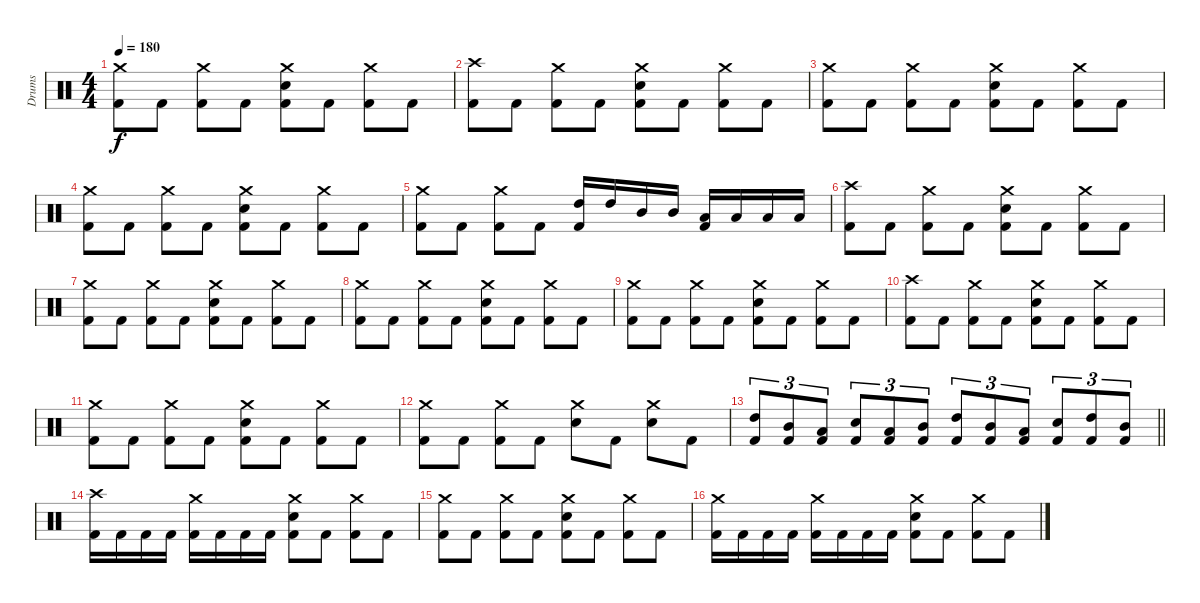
\track ("Drums" "Drums") {instrument percussion}
\staff {score}
\articulation defaults
\ts (4 4)
\tempo 180
\clef neutral
\ks c
("Crash medium (hit)" "Kick (hit) 2").8{dy f} "Kick (hit) 2".8 ("Crash medium (hit)" "Kick (hit) 2").8 "Kick (hit) 2".8 ("Crash medium (hit)" "Snare (hit) 2" "Kick (hit) 2").8 "Kick (hit) 2".8 ("Crash medium (hit)" "Kick (hit) 2").8 "Kick (hit) 2".8 |
("Crash high (hit)" "Kick (hit) 2").8 "Kick (hit) 2".8 ("Crash medium (hit)" "Kick (hit) 2").8 "Kick (hit) 2".8 ("Crash medium (hit)" "Snare (hit) 2" "Kick (hit) 2").8 "Kick (hit) 2".8 ("Crash medium (hit)" "Kick (hit) 2").8 "Kick (hit) 2".8 |
("Crash medium (hit)" "Kick (hit) 2").8 "Kick (hit) 2".8 ("Crash medium (hit)" "Kick (hit) 2").8 "Kick (hit) 2".8 ("Crash medium (hit)" "Snare (hit) 2" "Kick (hit) 2").8 "Kick (hit) 2".8 ("Crash medium (hit)" "Kick (hit) 2").8 "Kick (hit) 2".8 |
("Crash medium (hit)" "Kick (hit) 2").8 "Kick (hit) 2".8 ("Crash medium (hit)" "Kick (hit) 2").8 "Kick (hit) 2".8 ("Crash medium (hit)" "Snare (hit) 2" "Kick (hit) 2").8 "Kick (hit) 2".8 ("Crash medium (hit)" "Kick (hit) 2").8 "Kick (hit) 2".8 |
("Crash medium (hit)" "Kick (hit) 2").8 "Kick (hit) 2".8 ("Crash medium (hit)" "Kick (hit) 2").8 "Kick (hit) 2".8 ("High Tom (hit)" "Kick (hit) 2").16 "High Tom (hit)".16 "Mid Tom (hit)".16 "Mid Tom (hit)".16 ("Low Tom (hit)" "Kick (hit) 2").16 "Low Tom (hit)".16 "Low Tom (hit)".16 "Low Tom (hit)".16 |
("Crash high (hit)" "Kick (hit) 2").8 "Kick (hit) 2".8 ("Crash medium (hit)" "Kick (hit) 2").8 "Kick (hit) 2".8 ("Crash medium (hit)" "Snare (hit) 2" "Kick (hit) 2").8 "Kick (hit) 2".8 ("Crash medium (hit)" "Kick (hit) 2").8 "Kick (hit) 2".8 |
("Crash medium (hit)" "Kick (hit) 2").8 "Kick (hit) 2".8 ("Crash medium (hit)" "Kick (hit) 2").8 "Kick (hit) 2".8 ("Crash medium (hit)" "Snare (hit) 2" "Kick (hit) 2").8 "Kick (hit) 2".8 ("Crash medium (hit)" "Kick (hit) 2").8 "Kick (hit) 2".8 |
("Crash medium (hit)" "Kick (hit) 2").8 "Kick (hit) 2".8 ("Crash medium (hit)" "Kick (hit) 2").8 "Kick (hit) 2".8 ("Crash medium (hit)" "Snare (hit) 2" "Kick (hit) 2").8 "Kick (hit) 2".8 ("Crash medium (hit)" "Kick (hit) 2").8 "Kick (hit) 2".8 |
("Crash medium (hit)" "Kick (hit) 2").8 "Kick (hit) 2".8 ("Crash medium (hit)" "Kick (hit) 2").8 "Kick (hit) 2".8 ("Crash medium (hit)" "Snare (hit) 2" "Kick (hit) 2").8 "Kick (hit) 2".8 ("Crash medium (hit)" "Kick (hit) 2").8 "Kick (hit) 2".8 |
("Crash high (hit)" "Kick (hit) 2").8 "Kick (hit) 2".8 ("Crash medium (hit)" "Kick (hit) 2").8 "Kick (hit) 2".8 ("Crash medium (hit)" "Snare (hit) 2" "Kick (hit) 2").8 "Kick (hit) 2".8 ("Crash medium (hit)" "Kick (hit) 2").8 "Kick (hit) 2".8 |
("Crash medium (hit)" "Kick (hit) 2").8 "Kick (hit) 2".8 ("Crash medium (hit)" "Kick (hit) 2").8 "Kick (hit) 2".8 ("Crash medium (hit)" "Snare (hit) 2" "Kick (hit) 2").8 "Kick (hit) 2".8 ("Crash medium (hit)" "Kick (hit) 2").8 "Kick (hit) 2".8 |
("Crash medium (hit)" "Kick (hit) 2").8 "Kick (hit) 2".8 ("Crash medium (hit)" "Kick (hit) 2").8 "Kick (hit) 2".8 ("Crash medium (hit)" "Snare (hit) 2").8 "Kick (hit) 2".8 ("Crash medium (hit)" "Snare (hit) 2").8 "Kick (hit) 2".8 |
\barLineRight lightlight
("High Tom (hit)" "Kick (hit) 2").8{tu (3 2)} ("Mid Tom (hit)" "Kick (hit) 2").8{tu (3 2)} ("Low Tom (hit)" "Kick (hit) 2").8{tu (3 2)} ("Snare (hit) 2" "Kick (hit) 2").8{tu (3 2)} ("Low Tom (hit)" "Kick (hit) 2").8{tu (3 2)} ("Mid Tom (hit)" "Kick (hit) 2").8{tu (3 2)} ("High Tom (hit)" "Kick (hit) 2").8{tu (3 2)} ("Mid Tom (hit)" "Kick (hit) 2").8{tu (3 2)} ("Low Tom (hit)" "Kick (hit) 2").8{tu (3 2)} ("Snare (hit) 2" "Kick (hit) 2").8{tu (3 2)} ("High Tom (hit)" "Kick (hit) 2").8{tu (3 2)} ("Mid Tom (hit)" "Kick (hit) 2").8{tu (3 2)} |
("Crash high (hit)" "Kick (hit) 2").16 "Kick (hit) 2".16 "Kick (hit) 2".16 "Kick (hit) 2".16 ("Crash medium (hit)" "Kick (hit) 2").16 "Kick (hit) 2".16 "Kick (hit) 2".16 "Kick (hit) 2".16 ("Crash medium (hit)" "Snare (hit) 2" "Kick (hit) 2").8 "Kick (hit) 2".8 ("Crash medium (hit)" "Kick (hit) 2").8 "Kick (hit) 2".8 |
("Crash medium (hit)" "Kick (hit) 2").8 "Kick (hit) 2".8 ("Crash medium (hit)" "Kick (hit) 2").8 "Kick (hit) 2".8 ("Crash medium (hit)" "Snare (hit) 2" "Kick (hit) 2").8 "Kick (hit) 2".8 ("Crash medium (hit)" "Kick (hit) 2").8 "Kick (hit) 2".8 |
("Crash medium (hit)" "Kick (hit) 2").16 "Kick (hit) 2".16 "Kick (hit) 2".16 "Kick (hit) 2".16 ("Crash medium (hit)" "Kick (hit) 2").16 "Kick (hit) 2".16 "Kick (hit) 2".16 "Kick (hit) 2".16 ("Crash medium (hit)" "Snare (hit) 2" "Kick (hit) 2").8 "Kick (hit) 2".8 ("Crash medium (hit)" "Kick (hit) 2").8 "Kick (hit) 2".8
